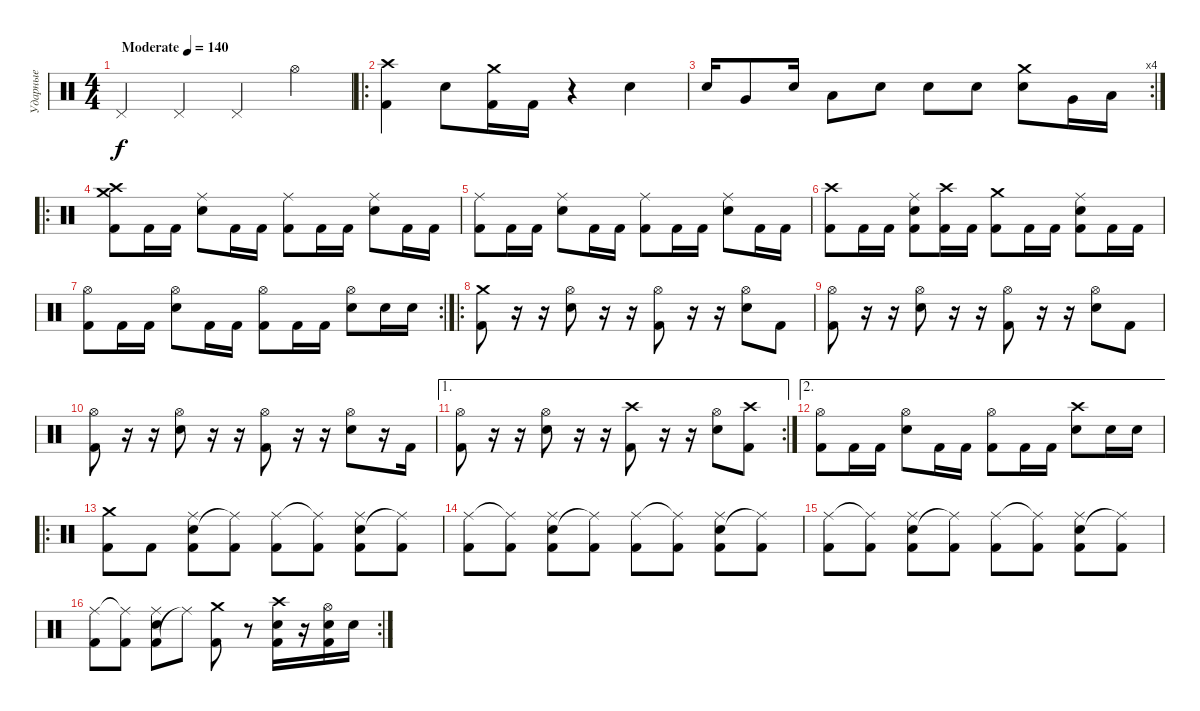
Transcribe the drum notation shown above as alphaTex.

\track ("Ударные" "Ударные") {instrument percussion}
\staff
\articulation defaults
\ts (4 4)
\tempo (140 "Moderate")
\clef neutral
\ks c "Pedal Hi-Hat (hit)".4{dy f} "Pedal Hi-Hat (hit)".4 "Pedal Hi-Hat (hit)".4 "Hi-Hat (open)".4
|
\ro
("Kick (hit) 2" "Crash high (hit)").4 "Snare (hit) 2".8 ("Kick (hit) 2" "Crash medium (hit)").16 "Kick (hit) 2".16 r.4 "Snare (hit) 2".4 |
\rc 4 "Snare (hit) 2".16 "Very Low Tom (hit)".8 "Snare (hit) 2".16 "Low Tom (hit)".8 "Snare (hit) 2".8 "Snare (hit) 2".8 "Snare (hit) 2".8
("Snare (hit) 2" "Crash medium (hit)").8 "Very Low Tom (hit)".16 "Low Tom (hit)".16 |
\ro
("Kick (hit) 2" "Crash medium (hit)" "Crash high (hit)").8 "Kick (hit) 2".16 "Kick (hit) 2".16 ("Snare (hit) 2" "Ride (middle)").8 "Kick (hit) 2".16 "Kick (hit) 2".16 ("Kick (hit) 2" "Ride (middle)").8 "Kick (hit) 2".16 "Kick (hit) 2".16 ("Snare (hit) 2" "Ride (middle)").8 "Kick (hit) 2".16 "Kick (hit) 2".16 |
("Kick (hit) 2" "Ride (middle)").8 "Kick (hit) 2".16 "Kick (hit) 2".16 ("Snare (hit) 2" "Ride (middle)").8 "Kick (hit) 2".16 "Kick (hit) 2".16 ("Kick (hit) 2" "Ride (middle)").8 "Kick (hit) 2".16 "Kick (hit) 2".16 ("Snare (hit) 2" "Ride (middle)").8 "Kick (hit) 2".16 "Kick (hit) 2".16 |
("Kick (hit) 2" "Crash high (hit)").8 "Kick (hit) 2".16 "Kick (hit) 2".16 ("Snare (hit) 2" "Kick (hit) 2" "Ride (middle)").8 ("Kick (hit) 2" "Crash high (hit)").16 "Kick (hit) 2".16 ("Kick (hit) 2" "Crash medium (hit)").8 "Kick (hit) 2".16 "Kick (hit) 2".16 ("Kick (hit) 2" "Snare (hit) 2" "Ride (middle)").8 "Kick (hit) 2".16 "Kick (hit) 2".16 |
\rc 2
("Kick (hit) 2" "Hi-Hat (open)").8 "Kick (hit) 2".16 "Kick (hit) 2".16 ("Snare (hit) 2" "Hi-Hat (open)").8 "Kick (hit) 2".16 "Kick (hit) 2".16 ("Kick (hit) 2" "Hi-Hat (open)").8 "Kick (hit) 2".16 "Kick (hit) 2".16 ("Snare (hit) 2" "Hi-Hat (open)").8 "Snare (hit) 2".16 "Snare (hit) 2".16 |
\ro
("Kick (hit) 2" "Crash medium (hit)").8 r.16 r.16 ("Snare (hit) 2" "Hi-Hat (open)").8 r.16 r.16 ("Kick (hit) 2" "Hi-Hat (open)").8 r.16 r.16 ("Snare (hit) 2" "Hi-Hat (open)").8 "Kick (hit) 2".8 |
("Kick (hit) 2" "Hi-Hat (open)").8 r.16 r.16 ("Snare (hit) 2" "Hi-Hat (open)").8 r.16 r.16 ("Kick (hit) 2" "Hi-Hat (open)").8 r.16 r.16 ("Snare (hit) 2" "Hi-Hat (open)").8 "Kick (hit) 2".8 |
("Kick (hit) 2" "Hi-Hat (open)").8 r.16 r.16 ("Snare (hit) 2" "Hi-Hat (open)").8 r.16 r.16 ("Kick (hit) 2" "Hi-Hat (open)").8 r.16 r.16 ("Snare (hit) 2" "Hi-Hat (open)").8 r.16 "Kick (hit) 2".16 |
\ae 1
\rc 2
("Kick (hit) 2" "Hi-Hat (open)").8 r.16 r.16 ("Snare (hit) 2" "Hi-Hat (open)").8 r.16 r.16 ("Kick (hit) 2" "Crash high (hit)").8 r.16 r.16 ("Snare (hit) 2" "Hi-Hat (open)").8 ("Kick (hit) 2" "Crash high (hit)").8 |
\ae 2
("Kick (hit) 2" "Hi-Hat (open)").8 "Kick (hit) 2".16 "Kick (hit) 2".16 ("Snare (hit) 2" "Hi-Hat (open)").8 "Kick (hit) 2".16 "Kick (hit) 2".16 ("Kick (hit) 2" "Hi-Hat (open)").8 "Kick (hit) 2".16 "Kick (hit) 2".16 ("Snare (hit) 2" "Crash high (hit)").8 "Snare (hit) 2".16 "Snare (hit) 2".16 |
\ro
("Kick (hit) 2" "Crash medium (hit)").8 "Kick (hit) 2".8 ("Kick (hit) 2" "Snare (hit) 2" "Ride (middle)").8 ("Kick (hit) 2" "Ride (middle)"{t}).8 ("Kick (hit) 2" "Ride (middle)").8 ("Kick (hit) 2" "Ride (middle)"{t}).8 ("Kick (hit) 2" "Snare (hit) 2" "Ride (middle)").8 ("Kick (hit) 2" "Ride (middle)"{t}).8 |
("Kick (hit) 2" "Ride (middle)").8 ("Kick (hit) 2" "Ride (middle)"{t}).8 ("Kick (hit) 2" "Snare (hit) 2" "Ride (middle)").8 ("Kick (hit) 2" "Ride (middle)"{t}).8 ("Kick (hit) 2" "Ride (middle)").8 ("Kick (hit) 2" "Ride (middle)"{t}).8 ("Kick (hit) 2" "Snare (hit) 2" "Ride (middle)").8 ("Kick (hit) 2" "Ride (middle)"{t}).8 |
("Kick (hit) 2" "Ride (middle)").8 ("Kick (hit) 2" "Ride (middle)"{t}).8 ("Kick (hit) 2" "Snare (hit) 2" "Ride (middle)").8 ("Kick (hit) 2" "Ride (middle)"{t}).8 ("Kick (hit) 2" "Ride (middle)").8 ("Kick (hit) 2" "Ride (middle)"{t}).8 ("Kick (hit) 2" "Snare (hit) 2" "Ride (middle)").8 ("Kick (hit) 2" "Ride (middle)"{t}).8 |
\rc 2
("Kick (hit) 2" "Ride (middle)").8 ("Kick (hit) 2" "Ride (middle)"{t}).8 ("Kick (hit) 2" "Snare (hit) 2" "Ride (middle)").8 "Ride (middle)"{t}.8 ("Kick (hit) 2" "Crash medium (hit)").8 r.8 ("Kick (hit) 2" "Snare (hit) 2" "Crash high (hit)").16 r.16 ("Kick (hit) 2" "Snare (hit) 2" "Hi-Hat (open)").16 "Snare (hit) 2".16
